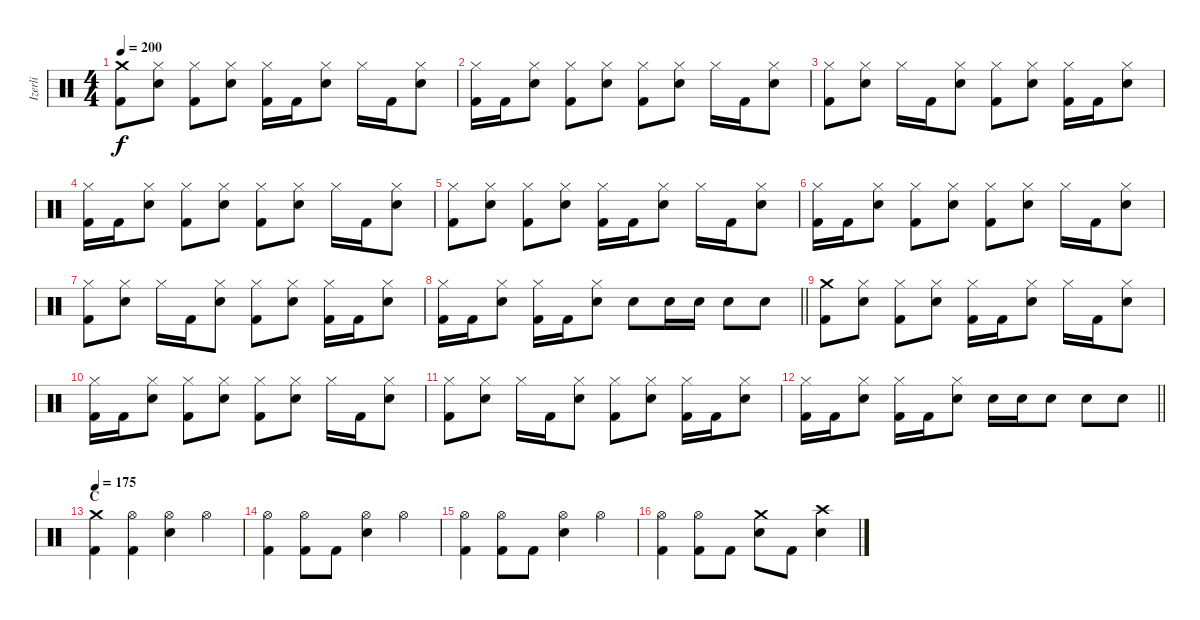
\track ("Izerli" "Izerli") {instrument percussion}
\staff {score}
\articulation defaults
\ts (4 4)
\tempo 200
\clef neutral
\ks c
("Crash medium (hit)" "Kick (hit) 2").8{dy f} ("Hi-Hat (closed)" "Electric Snare (hit)").8 ("Hi-Hat (closed)" "Kick (hit) 2").8 ("Hi-Hat (closed)" "Electric Snare (hit)").8 ("Hi-Hat (closed)" "Kick (hit) 2").16 "Kick (hit) 2".16 ("Hi-Hat (closed)" "Electric Snare (hit)").8 "Hi-Hat (closed)".16 "Kick (hit) 2".16 ("Hi-Hat (closed)" "Electric Snare (hit)").8 |
("Hi-Hat (closed)" "Kick (hit) 2").16 "Kick (hit) 2".16 ("Hi-Hat (closed)" "Electric Snare (hit)").8 ("Hi-Hat (closed)" "Kick (hit) 2").8 ("Hi-Hat (closed)" "Electric Snare (hit)").8 ("Hi-Hat (closed)" "Kick (hit) 2").8 ("Hi-Hat (closed)" "Electric Snare (hit)").8 "Hi-Hat (closed)".16 "Kick (hit) 2".16 ("Hi-Hat (closed)" "Electric Snare (hit)").8 |
("Hi-Hat (closed)" "Kick (hit) 2").8 ("Hi-Hat (closed)" "Electric Snare (hit)").8 "Hi-Hat (closed)".16 "Kick (hit) 2".16 ("Hi-Hat (closed)" "Electric Snare (hit)").8 ("Hi-Hat (closed)" "Kick (hit) 2").8 ("Hi-Hat (closed)" "Electric Snare (hit)").8 ("Hi-Hat (closed)" "Kick (hit) 2").16 "Kick (hit) 2".16 ("Hi-Hat (closed)" "Electric Snare (hit)").8 |
("Hi-Hat (closed)" "Kick (hit) 2").16 "Kick (hit) 2".16 ("Hi-Hat (closed)" "Electric Snare (hit)").8 ("Hi-Hat (closed)" "Kick (hit) 2").8 ("Hi-Hat (closed)" "Electric Snare (hit)").8 ("Hi-Hat (closed)" "Kick (hit) 2").8 ("Hi-Hat (closed)" "Electric Snare (hit)").8 "Hi-Hat (closed)".16 "Kick (hit) 2".16 ("Hi-Hat (closed)" "Electric Snare (hit)").8 |
("Hi-Hat (closed)" "Kick (hit) 2").8 ("Hi-Hat (closed)" "Electric Snare (hit)").8 ("Hi-Hat (closed)" "Kick (hit) 2").8 ("Hi-Hat (closed)" "Electric Snare (hit)").8 ("Hi-Hat (closed)" "Kick (hit) 2").16 "Kick (hit) 2".16 ("Hi-Hat (closed)" "Electric Snare (hit)").8 "Hi-Hat (closed)".16 "Kick (hit) 2".16 ("Hi-Hat (closed)" "Electric Snare (hit)").8 |
("Hi-Hat (closed)" "Kick (hit) 2").16 "Kick (hit) 2".16 ("Hi-Hat (closed)" "Electric Snare (hit)").8 ("Hi-Hat (closed)" "Kick (hit) 2").8 ("Hi-Hat (closed)" "Electric Snare (hit)").8 ("Hi-Hat (closed)" "Kick (hit) 2").8 ("Hi-Hat (closed)" "Electric Snare (hit)").8 "Hi-Hat (closed)".16 "Kick (hit) 2".16 ("Hi-Hat (closed)" "Electric Snare (hit)").8 |
("Hi-Hat (closed)" "Kick (hit) 2").8 ("Hi-Hat (closed)" "Electric Snare (hit)").8 "Hi-Hat (closed)".16 "Kick (hit) 2".16 ("Hi-Hat (closed)" "Electric Snare (hit)").8 ("Hi-Hat (closed)" "Kick (hit) 2").8 ("Hi-Hat (closed)" "Electric Snare (hit)").8 ("Hi-Hat (closed)" "Kick (hit) 2").16 "Kick (hit) 2".16 ("Hi-Hat (closed)" "Electric Snare (hit)").8 |
\barLineRight lightlight
("Hi-Hat (closed)" "Kick (hit) 2").16 "Kick (hit) 2".16 ("Hi-Hat (closed)" "Electric Snare (hit)").8 ("Hi-Hat (closed)" "Kick (hit) 2").16 "Kick (hit) 2".16 ("Hi-Hat (closed)" "Electric Snare (hit)").8 "Electric Snare (hit)".8 "Electric Snare (hit)".16 "Electric Snare (hit)".16 "Electric Snare (hit)".8 "Electric Snare (hit)".8 |
("Crash medium (hit)" "Kick (hit) 2").8 ("Hi-Hat (closed)" "Electric Snare (hit)").8 ("Hi-Hat (closed)" "Kick (hit) 2").8 ("Hi-Hat (closed)" "Electric Snare (hit)").8 ("Hi-Hat (closed)" "Kick (hit) 2").16 "Kick (hit) 2".16 ("Hi-Hat (closed)" "Electric Snare (hit)").8 "Hi-Hat (closed)".16 "Kick (hit) 2".16 ("Hi-Hat (closed)" "Electric Snare (hit)").8 |
("Hi-Hat (closed)" "Kick (hit) 2").16 "Kick (hit) 2".16 ("Hi-Hat (closed)" "Electric Snare (hit)").8 ("Hi-Hat (closed)" "Kick (hit) 2").8 ("Hi-Hat (closed)" "Electric Snare (hit)").8 ("Hi-Hat (closed)" "Kick (hit) 2").8 ("Hi-Hat (closed)" "Electric Snare (hit)").8 "Hi-Hat (closed)".16 "Kick (hit) 2".16 ("Hi-Hat (closed)" "Electric Snare (hit)").8 |
("Hi-Hat (closed)" "Kick (hit) 2").8 ("Hi-Hat (closed)" "Electric Snare (hit)").8 "Hi-Hat (closed)".16 "Kick (hit) 2".16 ("Hi-Hat (closed)" "Electric Snare (hit)").8 ("Hi-Hat (closed)" "Kick (hit) 2").8 ("Hi-Hat (closed)" "Electric Snare (hit)").8 ("Hi-Hat (closed)" "Kick (hit) 2").16 "Kick (hit) 2".16 ("Hi-Hat (closed)" "Electric Snare (hit)").8 |
\barLineRight lightlight
("Hi-Hat (closed)" "Kick (hit) 2").16 "Kick (hit) 2".16 ("Hi-Hat (closed)" "Electric Snare (hit)").8 ("Hi-Hat (closed)" "Kick (hit) 2").16 "Kick (hit) 2".16 ("Hi-Hat (closed)" "Electric Snare (hit)").8 "Electric Snare (hit)".16 "Electric Snare (hit)".16 "Electric Snare (hit)".8 "Electric Snare (hit)".8 "Electric Snare (hit)".8 |
\section ("" "C")
\tempo 175
("Crash medium (hit)" "Kick (hit) 2").4 ("Hi-Hat (open)" "Kick (hit) 2").4 ("Hi-Hat (open)" "Electric Snare (hit)").4 "Hi-Hat (open)".4 |
("Hi-Hat (open)" "Kick (hit) 2").4 ("Hi-Hat (open)" "Kick (hit) 2").8 "Kick (hit) 2".8 ("Hi-Hat (open)" "Electric Snare (hit)").4 "Hi-Hat (open)".4 |
("Hi-Hat (open)" "Kick (hit) 2").4 ("Hi-Hat (open)" "Kick (hit) 2").8 "Kick (hit) 2".8 ("Hi-Hat (open)" "Electric Snare (hit)").4 "Hi-Hat (open)".4 |
("Hi-Hat (open)" "Kick (hit) 2").4 ("Hi-Hat (open)" "Kick (hit) 2").8 "Kick (hit) 2".8 ("Crash medium (hit)" "Electric Snare (hit)").8 "Kick (hit) 2".8 ("Crash high (hit)" "Electric Snare (hit)").4
